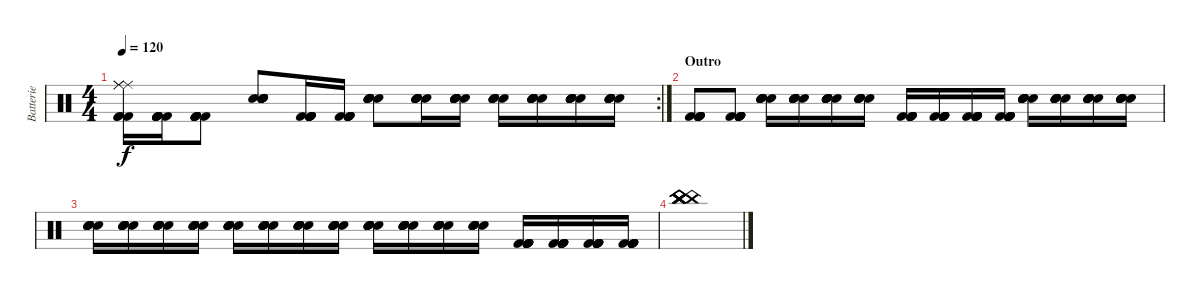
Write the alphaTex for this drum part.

\track ("Batterie" "Batterie") {instrument percussion}
\staff {score}
\articulation defaults
\rc 2
\ts (4 4)
\tempo 120
\clef neutral
\ks c
("Ride (middle)" "Ride (middle)" "Ride (middle)" "Kick (hit) 2" "Kick (hit) 2" "Kick (hit) 2").16{dy f} ("Kick (hit) 2" "Kick (hit) 2" "Kick (hit) 2" "Kick (hit) 2" "Kick (hit) 2" "Kick (hit) 2").16 ("Kick (hit) 2" "Kick (hit) 2" "Kick (hit) 2" "Kick (hit) 2" "Kick (hit) 2" "Kick (hit) 2").8 ("Snare (hit) 2" "Snare (hit) 2" "Snare (hit) 2" "Snare (hit) 2" "Snare (hit) 2" "Snare (hit) 2").8 ("Kick (hit) 2" "Kick (hit) 2" "Kick (hit) 2" "Kick (hit) 2" "Kick (hit) 2" "Kick (hit) 2").16 ("Kick (hit) 2" "Kick (hit) 2" "Kick (hit) 2" "Kick (hit) 2" "Kick (hit) 2" "Kick (hit) 2").16 ("Snare (hit) 2" "Snare (hit) 2" "Snare (hit) 2" "Snare (hit) 2" "Snare (hit) 2" "Snare (hit) 2").8 ("Snare (hit) 2" "Snare (hit) 2" "Snare (hit) 2" "Snare (hit) 2" "Snare (hit) 2" "Snare (hit) 2").16 ("Snare (hit) 2" "Snare (hit) 2" "Snare (hit) 2" "Snare (hit) 2" "Snare (hit) 2" "Snare (hit) 2").16 ("Snare (hit) 2" "Snare (hit) 2" "Snare (hit) 2" "Snare (hit) 2" "Snare (hit) 2" "Snare (hit) 2").16 ("Snare (hit) 2" "Snare (hit) 2" "Snare (hit) 2" "Snare (hit) 2" "Snare (hit) 2" "Snare (hit) 2").16 ("Snare (hit) 2" "Snare (hit) 2" "Snare (hit) 2" "Snare (hit) 2" "Snare (hit) 2" "Snare (hit) 2").16 ("Snare (hit) 2" "Snare (hit) 2" "Snare (hit) 2" "Snare (hit) 2" "Snare (hit) 2" "Snare (hit) 2").16 |
\section ("" "Outro")
("Kick (hit) 2" "Kick (hit) 2" "Kick (hit) 2" "Kick (hit) 2" "Kick (hit) 2" "Kick (hit) 2").8 ("Kick (hit) 2" "Kick (hit) 2" "Kick (hit) 2" "Kick (hit) 2" "Kick (hit) 2" "Kick (hit) 2").8 ("Snare (hit) 2" "Snare (hit) 2" "Snare (hit) 2" "Snare (hit) 2" "Snare (hit) 2" "Snare (hit) 2").16 ("Snare (hit) 2" "Snare (hit) 2" "Snare (hit) 2" "Snare (hit) 2" "Snare (hit) 2" "Snare (hit) 2").16 ("Snare (hit) 2" "Snare (hit) 2" "Snare (hit) 2" "Snare (hit) 2" "Snare (hit) 2" "Snare (hit) 2").16 ("Snare (hit) 2" "Snare (hit) 2" "Snare (hit) 2" "Snare (hit) 2" "Snare (hit) 2" "Snare (hit) 2").16 ("Kick (hit) 2" "Kick (hit) 2" "Kick (hit) 2" "Kick (hit) 2" "Kick (hit) 2" "Kick (hit) 2").16 ("Kick (hit) 2" "Kick (hit) 2" "Kick (hit) 2" "Kick (hit) 2" "Kick (hit) 2" "Kick (hit) 2").16 ("Kick (hit) 2" "Kick (hit) 2" "Kick (hit) 2" "Kick (hit) 2" "Kick (hit) 2" "Kick (hit) 2").16 ("Kick (hit) 2" "Kick (hit) 2" "Kick (hit) 2" "Kick (hit) 2" "Kick (hit) 2" "Kick (hit) 2").16 ("Snare (hit) 2" "Snare (hit) 2" "Snare (hit) 2" "Snare (hit) 2" "Snare (hit) 2" "Snare (hit) 2").16 ("Snare (hit) 2" "Snare (hit) 2" "Snare (hit) 2" "Snare (hit) 2" "Snare (hit) 2" "Snare (hit) 2").16 ("Snare (hit) 2" "Snare (hit) 2" "Snare (hit) 2" "Snare (hit) 2" "Snare (hit) 2" "Snare (hit) 2").16 ("Snare (hit) 2" "Snare (hit) 2" "Snare (hit) 2" "Snare (hit) 2" "Snare (hit) 2" "Snare (hit) 2").16 |
("Snare (hit) 2" "Snare (hit) 2" "Snare (hit) 2" "Snare (hit) 2" "Snare (hit) 2" "Snare (hit) 2").16 ("Snare (hit) 2" "Snare (hit) 2" "Snare (hit) 2" "Snare (hit) 2" "Snare (hit) 2" "Snare (hit) 2").16 ("Snare (hit) 2" "Snare (hit) 2" "Snare (hit) 2" "Snare (hit) 2" "Snare (hit) 2" "Snare (hit) 2").16 ("Snare (hit) 2" "Snare (hit) 2" "Snare (hit) 2" "Snare (hit) 2" "Snare (hit) 2" "Snare (hit) 2").16 ("Snare (hit) 2" "Snare (hit) 2" "Snare (hit) 2" "Snare (hit) 2" "Snare (hit) 2" "Snare (hit) 2").16 ("Snare (hit) 2" "Snare (hit) 2" "Snare (hit) 2" "Snare (hit) 2" "Snare (hit) 2" "Snare (hit) 2").16 ("Snare (hit) 2" "Snare (hit) 2" "Snare (hit) 2" "Snare (hit) 2" "Snare (hit) 2" "Snare (hit) 2").16 ("Snare (hit) 2" "Snare (hit) 2" "Snare (hit) 2" "Snare (hit) 2" "Snare (hit) 2" "Snare (hit) 2").16 ("Snare (hit) 2" "Snare (hit) 2" "Snare (hit) 2" "Snare (hit) 2" "Snare (hit) 2" "Snare (hit) 2").16 ("Snare (hit) 2" "Snare (hit) 2" "Snare (hit) 2" "Snare (hit) 2" "Snare (hit) 2" "Snare (hit) 2").16 ("Snare (hit) 2" "Snare (hit) 2" "Snare (hit) 2" "Snare (hit) 2" "Snare (hit) 2" "Snare (hit) 2").16 ("Snare (hit) 2" "Snare (hit) 2" "Snare (hit) 2" "Snare (hit) 2" "Snare (hit) 2" "Snare (hit) 2").16 ("Kick (hit) 2" "Kick (hit) 2" "Kick (hit) 2" "Kick (hit) 2" "Kick (hit) 2" "Kick (hit) 2").16 ("Kick (hit) 2" "Kick (hit) 2" "Kick (hit) 2" "Kick (hit) 2" "Kick (hit) 2" "Kick (hit) 2").16 ("Kick (hit) 2" "Kick (hit) 2" "Kick (hit) 2" "Kick (hit) 2" "Kick (hit) 2" "Kick (hit) 2").16 ("Kick (hit) 2" "Kick (hit) 2" "Kick (hit) 2" "Kick (hit) 2" "Kick (hit) 2" "Kick (hit) 2").16 |
("China (hit)" "China (hit)" "China (hit)" "China (hit)" "China (hit)" "China (hit)").1
